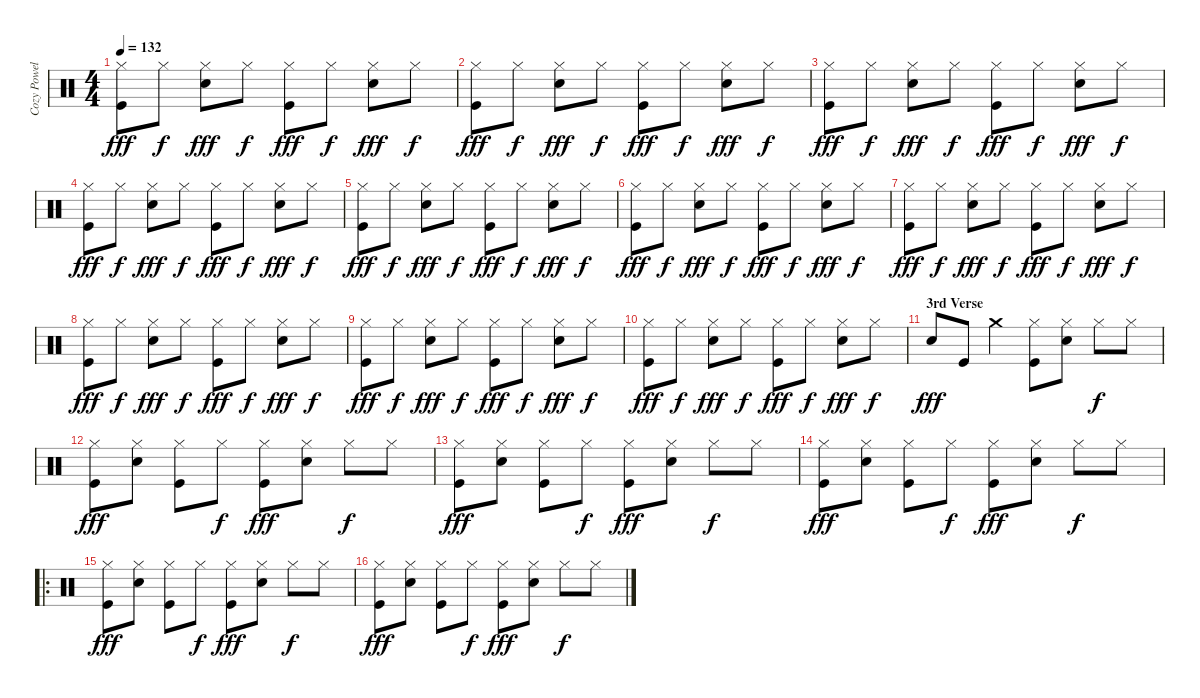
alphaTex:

\track ("Cozy Powell" "Cozy Powel") {instrument percussion}
\staff {score}
\articulation defaults
\ts (4 4)
\tempo 132
\clef neutral
\ks c
("Kick (hit)" "Hi-Hat (closed)").8{dy fff} "Hi-Hat (closed)".8{dy f} ("Snare (hit) 2" "Hi-Hat (closed)").8{dy fff} "Hi-Hat (closed)".8{dy f} ("Kick (hit)" "Hi-Hat (closed)").8{dy fff} "Hi-Hat (closed)".8{dy f} ("Snare (hit) 2" "Hi-Hat (closed)").8{dy fff} "Hi-Hat (closed)".8{dy f} |
("Kick (hit)" "Hi-Hat (closed)").8{dy fff} "Hi-Hat (closed)".8{dy f} ("Snare (hit) 2" "Hi-Hat (closed)").8{dy fff} "Hi-Hat (closed)".8{dy f} ("Kick (hit)" "Hi-Hat (closed)").8{dy fff} "Hi-Hat (closed)".8{dy f} ("Snare (hit) 2" "Hi-Hat (closed)").8{dy fff} "Hi-Hat (closed)".8{dy f} |
("Kick (hit)" "Hi-Hat (closed)").8{dy fff} "Hi-Hat (closed)".8{dy f} ("Snare (hit) 2" "Hi-Hat (closed)").8{dy fff} "Hi-Hat (closed)".8{dy f} ("Kick (hit)" "Hi-Hat (closed)").8{dy fff} "Hi-Hat (closed)".8{dy f} ("Snare (hit) 2" "Hi-Hat (closed)").8{dy fff} "Hi-Hat (closed)".8{dy f} |
("Kick (hit)" "Hi-Hat (closed)").8{dy fff} "Hi-Hat (closed)".8{dy f} ("Snare (hit) 2" "Hi-Hat (closed)").8{dy fff} "Hi-Hat (closed)".8{dy f} ("Kick (hit)" "Hi-Hat (closed)").8{dy fff} "Hi-Hat (closed)".8{dy f} ("Snare (hit) 2" "Hi-Hat (closed)").8{dy fff} "Hi-Hat (closed)".8{dy f} |
("Kick (hit)" "Hi-Hat (closed)").8{dy fff} "Hi-Hat (closed)".8{dy f} ("Snare (hit) 2" "Hi-Hat (closed)").8{dy fff} "Hi-Hat (closed)".8{dy f} ("Kick (hit)" "Hi-Hat (closed)").8{dy fff} "Hi-Hat (closed)".8{dy f} ("Snare (hit) 2" "Hi-Hat (closed)").8{dy fff} "Hi-Hat (closed)".8{dy f} |
("Kick (hit)" "Hi-Hat (closed)").8{dy fff} "Hi-Hat (closed)".8{dy f} ("Snare (hit) 2" "Hi-Hat (closed)").8{dy fff} "Hi-Hat (closed)".8{dy f} ("Kick (hit)" "Hi-Hat (closed)").8{dy fff} "Hi-Hat (closed)".8{dy f} ("Snare (hit) 2" "Hi-Hat (closed)").8{dy fff} "Hi-Hat (closed)".8{dy f} |
("Kick (hit)" "Hi-Hat (closed)").8{dy fff} "Hi-Hat (closed)".8{dy f} ("Snare (hit) 2" "Hi-Hat (closed)").8{dy fff} "Hi-Hat (closed)".8{dy f} ("Kick (hit)" "Hi-Hat (closed)").8{dy fff} "Hi-Hat (closed)".8{dy f} ("Snare (hit) 2" "Hi-Hat (closed)").8{dy fff} "Hi-Hat (closed)".8{dy f} |
("Kick (hit)" "Hi-Hat (closed)").8{dy fff} "Hi-Hat (closed)".8{dy f} ("Snare (hit) 2" "Hi-Hat (closed)").8{dy fff} "Hi-Hat (closed)".8{dy f} ("Kick (hit)" "Hi-Hat (closed)").8{dy fff} "Hi-Hat (closed)".8{dy f} ("Snare (hit) 2" "Hi-Hat (closed)").8{dy fff} "Hi-Hat (closed)".8{dy f} |
("Kick (hit)" "Hi-Hat (closed)").8{dy fff} "Hi-Hat (closed)".8{dy f} ("Snare (hit) 2" "Hi-Hat (closed)").8{dy fff} "Hi-Hat (closed)".8{dy f} ("Kick (hit)" "Hi-Hat (closed)").8{dy fff} "Hi-Hat (closed)".8{dy f} ("Snare (hit) 2" "Hi-Hat (closed)").8{dy fff} "Hi-Hat (closed)".8{dy f} |
("Kick (hit)" "Hi-Hat (closed)").8{dy fff} "Hi-Hat (closed)".8{dy f} ("Snare (hit) 2" "Hi-Hat (closed)").8{dy fff} "Hi-Hat (closed)".8{dy f} ("Kick (hit)" "Hi-Hat (closed)").8{dy fff} "Hi-Hat (closed)".8{dy f} ("Snare (hit) 2" "Hi-Hat (closed)").8{dy fff} "Hi-Hat (closed)".8{dy f} |
\section ("" "3rd Verse")
"Snare (hit) 2".8{dy fff} "Kick (hit)".8 "Crash medium (hit)".4 ("Kick (hit)" "Hi-Hat (closed)").8 ("Snare (hit) 2" "Hi-Hat (closed)").8 "Hi-Hat (closed)".8{dy f} "Hi-Hat (closed)".8 |
("Kick (hit)" "Hi-Hat (closed)").8{dy fff} ("Snare (hit) 2" "Hi-Hat (closed)").8 ("Kick (hit)" "Hi-Hat (closed)").8 "Hi-Hat (closed)".8{dy f} ("Kick (hit)" "Hi-Hat (closed)").8{dy fff} ("Snare (hit) 2" "Hi-Hat (closed)").8 "Hi-Hat (closed)".8{dy f} "Hi-Hat (closed)".8 |
("Kick (hit)" "Hi-Hat (closed)").8{dy fff} ("Snare (hit) 2" "Hi-Hat (closed)").8 ("Kick (hit)" "Hi-Hat (closed)").8 "Hi-Hat (closed)".8{dy f} ("Kick (hit)" "Hi-Hat (closed)").8{dy fff} ("Snare (hit) 2" "Hi-Hat (closed)").8 "Hi-Hat (closed)".8{dy f} "Hi-Hat (closed)".8 |
("Kick (hit)" "Hi-Hat (closed)").8{dy fff} ("Snare (hit) 2" "Hi-Hat (closed)").8 ("Kick (hit)" "Hi-Hat (closed)").8 "Hi-Hat (closed)".8{dy f} ("Kick (hit)" "Hi-Hat (closed)").8{dy fff} ("Snare (hit) 2" "Hi-Hat (closed)").8 "Hi-Hat (closed)".8{dy f} "Hi-Hat (closed)".8 |
\ro
("Kick (hit)" "Hi-Hat (closed)").8{dy fff} ("Snare (hit) 2" "Hi-Hat (closed)").8 ("Kick (hit)" "Hi-Hat (closed)").8 "Hi-Hat (closed)".8{dy f} ("Kick (hit)" "Hi-Hat (closed)").8{dy fff} ("Snare (hit) 2" "Hi-Hat (closed)").8 "Hi-Hat (closed)".8{dy f} "Hi-Hat (closed)".8 |
("Kick (hit)" "Hi-Hat (closed)").8{dy fff} ("Snare (hit) 2" "Hi-Hat (closed)").8 ("Kick (hit)" "Hi-Hat (closed)").8 "Hi-Hat (closed)".8{dy f} ("Kick (hit)" "Hi-Hat (closed)").8{dy fff} ("Snare (hit) 2" "Hi-Hat (closed)").8 "Hi-Hat (closed)".8{dy f} "Hi-Hat (closed)".8
